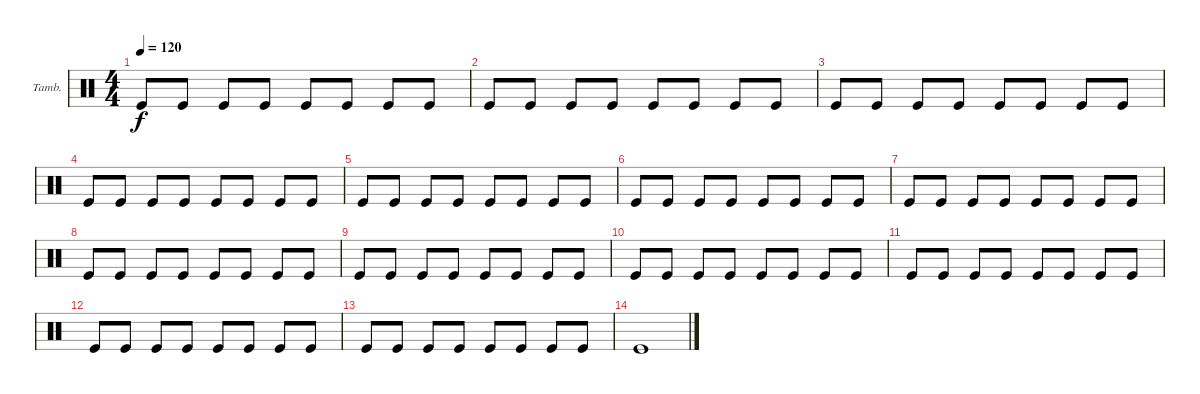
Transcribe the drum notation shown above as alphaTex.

\defaultSystemsLayout 4
\bracketExtendMode groupsimilarinstruments
\firstSystemTrackNameOrientation horizontal
\otherSystemsTrackNameOrientation horizontal
\track ("Tambourine" "Tamb.") {multiBarRest instrument percussion}
\staff {score}
\articulation defaults
\ts (4 4)
\tempo 120
\clef neutral
\ks c "Kick (hit)".8{dy f} "Kick (hit)".8 "Kick (hit)".8 "Kick (hit)".8 "Kick (hit)".8 "Kick (hit)".8 "Kick (hit)".8 "Kick (hit)".8
|
"Kick (hit)".8 "Kick (hit)".8 "Kick (hit)".8 "Kick (hit)".8 "Kick (hit)".8 "Kick (hit)".8 "Kick (hit)".8 "Kick (hit)".8 |
"Kick (hit)".8 "Kick (hit)".8 "Kick (hit)".8 "Kick (hit)".8 "Kick (hit)".8 "Kick (hit)".8 "Kick (hit)".8 "Kick (hit)".8 |
"Kick (hit)".8 "Kick (hit)".8 "Kick (hit)".8 "Kick (hit)".8 "Kick (hit)".8 "Kick (hit)".8 "Kick (hit)".8 "Kick (hit)".8 |
"Kick (hit)".8 "Kick (hit)".8 "Kick (hit)".8 "Kick (hit)".8 "Kick (hit)".8 "Kick (hit)".8 "Kick (hit)".8 "Kick (hit)".8 |
"Kick (hit)".8 "Kick (hit)".8 "Kick (hit)".8 "Kick (hit)".8 "Kick (hit)".8 "Kick (hit)".8 "Kick (hit)".8 "Kick (hit)".8 |
"Kick (hit)".8 "Kick (hit)".8 "Kick (hit)".8 "Kick (hit)".8 "Kick (hit)".8 "Kick (hit)".8 "Kick (hit)".8 "Kick (hit)".8 |
"Kick (hit)".8 "Kick (hit)".8 "Kick (hit)".8 "Kick (hit)".8 "Kick (hit)".8 "Kick (hit)".8 "Kick (hit)".8 "Kick (hit)".8 |
"Kick (hit)".8 "Kick (hit)".8 "Kick (hit)".8 "Kick (hit)".8 "Kick (hit)".8 "Kick (hit)".8 "Kick (hit)".8 "Kick (hit)".8 |
"Kick (hit)".8 "Kick (hit)".8 "Kick (hit)".8 "Kick (hit)".8 "Kick (hit)".8 "Kick (hit)".8 "Kick (hit)".8 "Kick (hit)".8 |
"Kick (hit)".8 "Kick (hit)".8 "Kick (hit)".8 "Kick (hit)".8 "Kick (hit)".8 "Kick (hit)".8 "Kick (hit)".8 "Kick (hit)".8 |
"Kick (hit)".8 "Kick (hit)".8 "Kick (hit)".8 "Kick (hit)".8 "Kick (hit)".8 "Kick (hit)".8 "Kick (hit)".8 "Kick (hit)".8 |
"Kick (hit)".8 "Kick (hit)".8 "Kick (hit)".8 "Kick (hit)".8 "Kick (hit)".8 "Kick (hit)".8 "Kick (hit)".8 "Kick (hit)".8 |
"Kick (hit)".1
